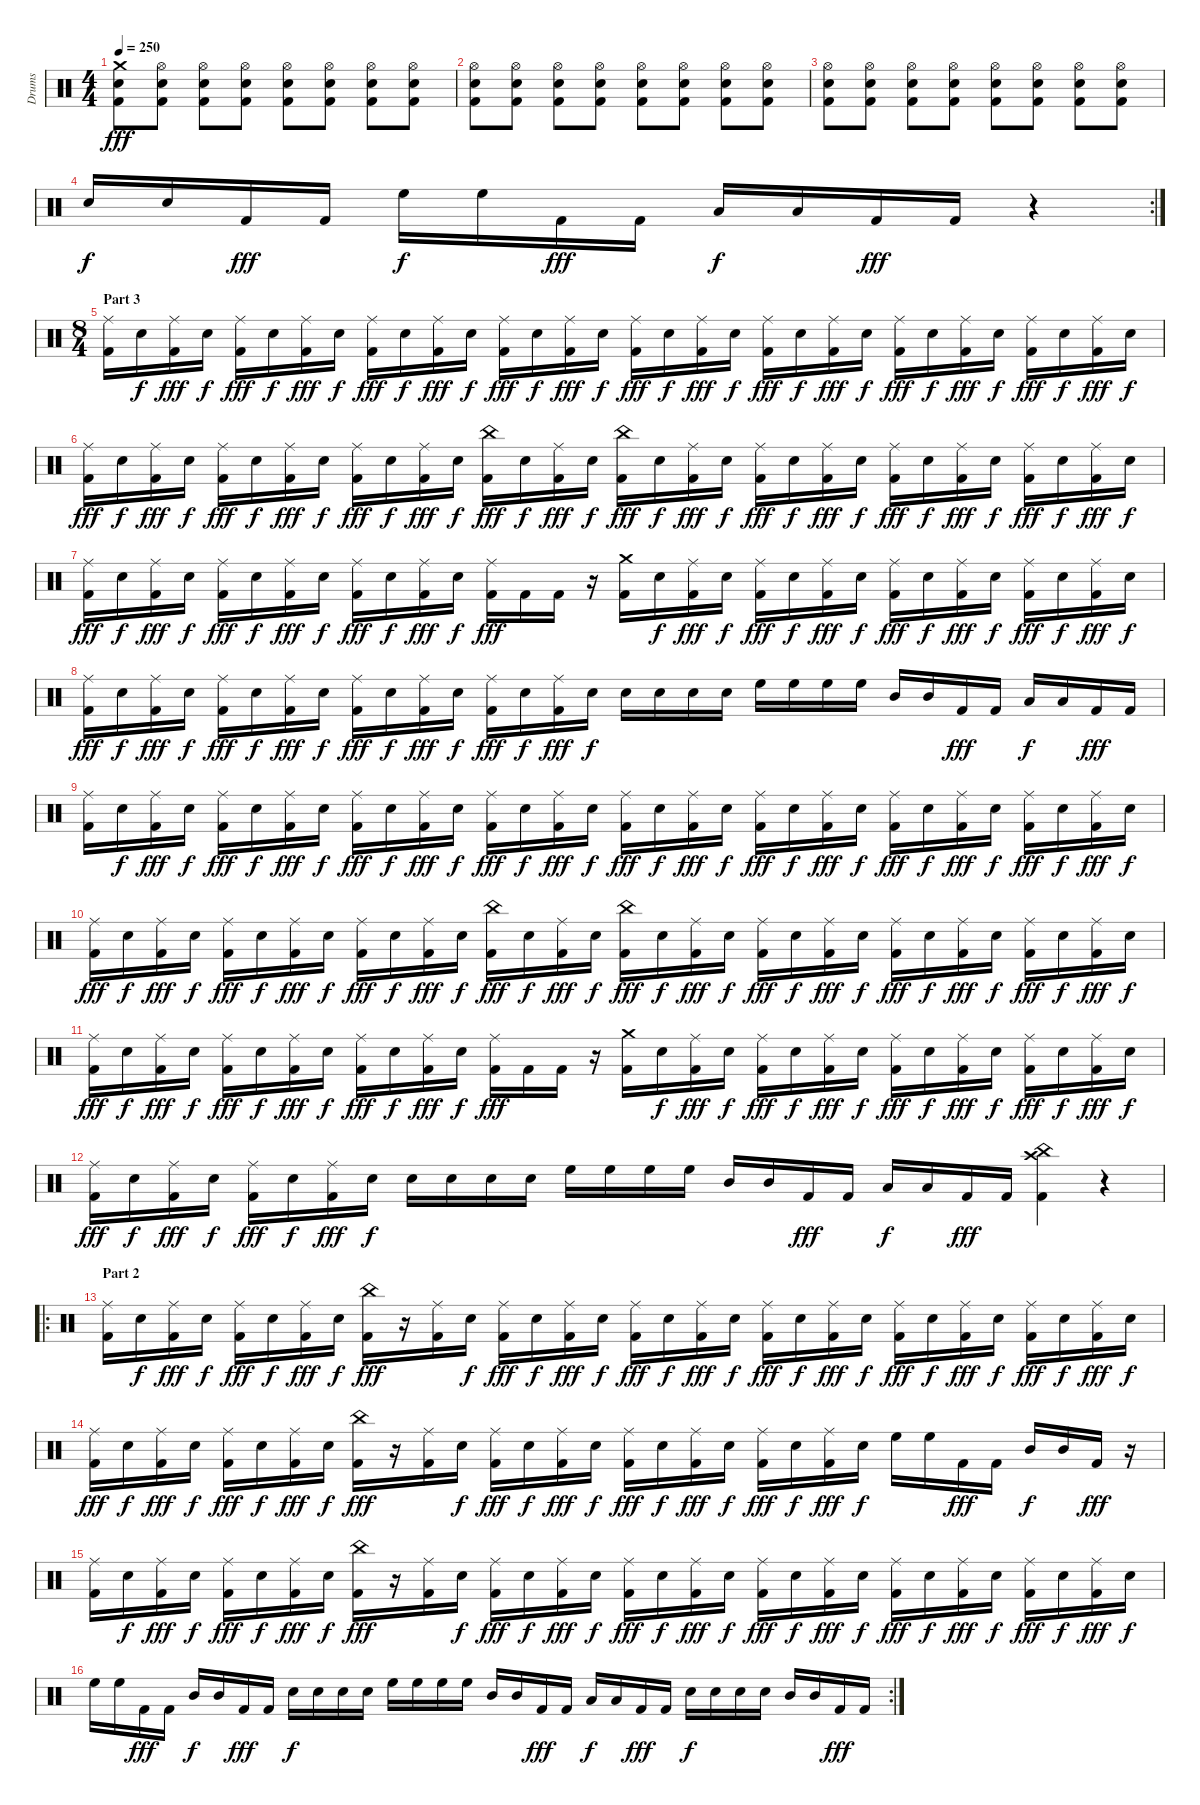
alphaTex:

\track ("Drums" "Drums") {instrument percussion}
\staff {score}
\articulation defaults
\ts (4 4)
\tempo 250
\clef neutral
\ks c
("Crash medium (hit)" "Electric Snare (hit)" "Kick (hit) 2").8{dy fff} ("Hi-Hat (open)" "Electric Snare (hit)" "Kick (hit) 2").8 ("Hi-Hat (open)" "Electric Snare (hit)" "Kick (hit) 2").8 ("Hi-Hat (open)" "Electric Snare (hit)" "Kick (hit) 2").8 ("Hi-Hat (open)" "Electric Snare (hit)" "Kick (hit) 2").8 ("Hi-Hat (open)" "Electric Snare (hit)" "Kick (hit) 2").8 ("Hi-Hat (open)" "Electric Snare (hit)" "Kick (hit) 2").8 ("Hi-Hat (open)" "Electric Snare (hit)" "Kick (hit) 2").8 |
("Hi-Hat (open)" "Electric Snare (hit)" "Kick (hit) 2").8 ("Hi-Hat (open)" "Electric Snare (hit)" "Kick (hit) 2").8 ("Hi-Hat (open)" "Electric Snare (hit)" "Kick (hit) 2").8 ("Hi-Hat (open)" "Electric Snare (hit)" "Kick (hit) 2").8 ("Hi-Hat (open)" "Electric Snare (hit)" "Kick (hit) 2").8 ("Hi-Hat (open)" "Electric Snare (hit)" "Kick (hit) 2").8 ("Hi-Hat (open)" "Electric Snare (hit)" "Kick (hit) 2").8 ("Hi-Hat (open)" "Electric Snare (hit)" "Kick (hit) 2").8 |
("Hi-Hat (open)" "Electric Snare (hit)" "Kick (hit) 2").8 ("Hi-Hat (open)" "Electric Snare (hit)" "Kick (hit) 2").8 ("Hi-Hat (open)" "Electric Snare (hit)" "Kick (hit) 2").8 ("Hi-Hat (open)" "Electric Snare (hit)" "Kick (hit) 2").8 ("Hi-Hat (open)" "Electric Snare (hit)" "Kick (hit) 2").8 ("Hi-Hat (open)" "Electric Snare (hit)" "Kick (hit) 2").8 ("Hi-Hat (open)" "Electric Snare (hit)" "Kick (hit) 2").8 ("Hi-Hat (open)" "Electric Snare (hit)" "Kick (hit) 2").8 |
\rc 2 "Electric Snare (hit)".16{dy f} "Electric Snare (hit)".16 "Kick (hit) 2".16{dy fff} "Kick (hit) 2".16 "High Floor Tom (hit)".16{dy f} "High Floor Tom (hit)".16 "Kick (hit) 2".16{dy fff} "Kick (hit) 2".16 "Low Tom (hit)".16{dy f} "Low Tom (hit)".16 "Kick (hit) 2".16{dy fff} "Kick (hit) 2".16
r.4 |
\ts (8 4)
\section ("" "Part 3")
("Ride (middle)" "Kick (hit) 2").16 "Electric Snare (hit)".16{dy f} ("Ride (middle)" "Kick (hit) 2").16{dy fff} "Electric Snare (hit)".16{dy f} ("Ride (middle)" "Kick (hit) 2").16{dy fff} "Electric Snare (hit)".16{dy f} ("Ride (middle)" "Kick (hit) 2").16{dy fff} "Electric Snare (hit)".16{dy f} ("Ride (middle)" "Kick (hit) 2").16{dy fff} "Electric Snare (hit)".16{dy f} ("Ride (middle)" "Kick (hit) 2").16{dy fff} "Electric Snare (hit)".16{dy f} ("Ride (middle)" "Kick (hit) 2").16{dy fff} "Electric Snare (hit)".16{dy f} ("Ride (middle)" "Kick (hit) 2").16{dy fff} "Electric Snare (hit)".16{dy f} ("Ride (middle)" "Kick (hit) 2").16{dy fff} "Electric Snare (hit)".16{dy f} ("Ride (middle)" "Kick (hit) 2").16{dy fff} "Electric Snare (hit)".16{dy f} ("Ride (middle)" "Kick (hit) 2").16{dy fff} "Electric Snare (hit)".16{dy f} ("Ride (middle)" "Kick (hit) 2").16{dy fff} "Electric Snare (hit)".16{dy f} ("Ride (middle)" "Kick (hit) 2").16{dy fff} "Electric Snare (hit)".16{dy f} ("Ride (middle)" "Kick (hit) 2").16{dy fff} "Electric Snare (hit)".16{dy f} ("Ride (middle)" "Kick (hit) 2").16{dy fff} "Electric Snare (hit)".16{dy f} ("Ride (middle)" "Kick (hit) 2").16{dy fff} "Electric Snare (hit)".16{dy f} |
("Ride (middle)" "Kick (hit) 2").16{dy fff} "Electric Snare (hit)".16{dy f} ("Ride (middle)" "Kick (hit) 2").16{dy fff} "Electric Snare (hit)".16{dy f} ("Ride (middle)" "Kick (hit) 2").16{dy fff} "Electric Snare (hit)".16{dy f} ("Ride (middle)" "Kick (hit) 2").16{dy fff} "Electric Snare (hit)".16{dy f} ("Ride (middle)" "Kick (hit) 2").16{dy fff} "Electric Snare (hit)".16{dy f} ("Ride (middle)" "Kick (hit) 2").16{dy fff} "Electric Snare (hit)".16{dy f} ("China (hit)" "Kick (hit) 2").16{dy fff} "Electric Snare (hit)".16{dy f} ("Ride (middle)" "Kick (hit) 2").16{dy fff} "Electric Snare (hit)".16{dy f} ("China (hit)" "Kick (hit) 2").16{dy fff} "Electric Snare (hit)".16{dy f} ("Ride (middle)" "Kick (hit) 2").16{dy fff} "Electric Snare (hit)".16{dy f} ("Ride (middle)" "Kick (hit) 2").16{dy fff} "Electric Snare (hit)".16{dy f} ("Ride (middle)" "Kick (hit) 2").16{dy fff} "Electric Snare (hit)".16{dy f} ("Ride (middle)" "Kick (hit) 2").16{dy fff} "Electric Snare (hit)".16{dy f} ("Ride (middle)" "Kick (hit) 2").16{dy fff} "Electric Snare (hit)".16{dy f} ("Ride (middle)" "Kick (hit) 2").16{dy fff} "Electric Snare (hit)".16{dy f} ("Ride (middle)" "Kick (hit) 2").16{dy fff} "Electric Snare (hit)".16{dy f} |
("Ride (middle)" "Kick (hit) 2").16{dy fff} "Electric Snare (hit)".16{dy f} ("Ride (middle)" "Kick (hit) 2").16{dy fff} "Electric Snare (hit)".16{dy f} ("Ride (middle)" "Kick (hit) 2").16{dy fff} "Electric Snare (hit)".16{dy f} ("Ride (middle)" "Kick (hit) 2").16{dy fff} "Electric Snare (hit)".16{dy f} ("Ride (middle)" "Kick (hit) 2").16{dy fff} "Electric Snare (hit)".16{dy f} ("Ride (middle)" "Kick (hit) 2").16{dy fff} "Electric Snare (hit)".16{dy f} ("Ride (middle)" "Kick (hit) 2").16{dy fff} "Kick (hit) 2".16 "Kick (hit) 2".16 r.16 ("Crash medium (hit)" "Kick (hit) 2").16 "Electric Snare (hit)".16{dy f} ("Ride (middle)" "Kick (hit) 2").16{dy fff} "Electric Snare (hit)".16{dy f} ("Ride (middle)" "Kick (hit) 2").16{dy fff} "Electric Snare (hit)".16{dy f} ("Ride (middle)" "Kick (hit) 2").16{dy fff} "Electric Snare (hit)".16{dy f} ("Ride (middle)" "Kick (hit) 2").16{dy fff} "Electric Snare (hit)".16{dy f} ("Ride (middle)" "Kick (hit) 2").16{dy fff} "Electric Snare (hit)".16{dy f} ("Ride (middle)" "Kick (hit) 2").16{dy fff} "Electric Snare (hit)".16{dy f} ("Ride (middle)" "Kick (hit) 2").16{dy fff} "Electric Snare (hit)".16{dy f} |
("Ride (middle)" "Kick (hit) 2").16{dy fff} "Electric Snare (hit)".16{dy f} ("Ride (middle)" "Kick (hit) 2").16{dy fff} "Electric Snare (hit)".16{dy f} ("Ride (middle)" "Kick (hit) 2").16{dy fff} "Electric Snare (hit)".16{dy f} ("Ride (middle)" "Kick (hit) 2").16{dy fff} "Electric Snare (hit)".16{dy f} ("Ride (middle)" "Kick (hit) 2").16{dy fff} "Electric Snare (hit)".16{dy f} ("Ride (middle)" "Kick (hit) 2").16{dy fff} "Electric Snare (hit)".16{dy f} ("Ride (middle)" "Kick (hit) 2").16{dy fff} "Electric Snare (hit)".16{dy f} ("Ride (middle)" "Kick (hit) 2").16{dy fff} "Electric Snare (hit)".16{dy f} "Electric Snare (hit)".16 "Electric Snare (hit)".16 "Electric Snare (hit)".16 "Electric Snare (hit)".16 "High Floor Tom (hit)".16 "High Floor Tom (hit)".16 "High Floor Tom (hit)".16 "High Floor Tom (hit)".16 "Mid Tom (hit)".16 "Mid Tom (hit)".16 "Kick (hit) 2".16{dy fff} "Kick (hit) 2".16 "Low Tom (hit)".16{dy f} "Low Tom (hit)".16 "Kick (hit) 2".16{dy fff} "Kick (hit) 2".16 |
("Ride (middle)" "Kick (hit) 2").16 "Electric Snare (hit)".16{dy f} ("Ride (middle)" "Kick (hit) 2").16{dy fff} "Electric Snare (hit)".16{dy f} ("Ride (middle)" "Kick (hit) 2").16{dy fff} "Electric Snare (hit)".16{dy f} ("Ride (middle)" "Kick (hit) 2").16{dy fff} "Electric Snare (hit)".16{dy f} ("Ride (middle)" "Kick (hit) 2").16{dy fff} "Electric Snare (hit)".16{dy f} ("Ride (middle)" "Kick (hit) 2").16{dy fff} "Electric Snare (hit)".16{dy f} ("Ride (middle)" "Kick (hit) 2").16{dy fff} "Electric Snare (hit)".16{dy f} ("Ride (middle)" "Kick (hit) 2").16{dy fff} "Electric Snare (hit)".16{dy f} ("Ride (middle)" "Kick (hit) 2").16{dy fff} "Electric Snare (hit)".16{dy f} ("Ride (middle)" "Kick (hit) 2").16{dy fff} "Electric Snare (hit)".16{dy f} ("Ride (middle)" "Kick (hit) 2").16{dy fff} "Electric Snare (hit)".16{dy f} ("Ride (middle)" "Kick (hit) 2").16{dy fff} "Electric Snare (hit)".16{dy f} ("Ride (middle)" "Kick (hit) 2").16{dy fff} "Electric Snare (hit)".16{dy f} ("Ride (middle)" "Kick (hit) 2").16{dy fff} "Electric Snare (hit)".16{dy f} ("Ride (middle)" "Kick (hit) 2").16{dy fff} "Electric Snare (hit)".16{dy f} ("Ride (middle)" "Kick (hit) 2").16{dy fff} "Electric Snare (hit)".16{dy f} |
("Ride (middle)" "Kick (hit) 2").16{dy fff} "Electric Snare (hit)".16{dy f} ("Ride (middle)" "Kick (hit) 2").16{dy fff} "Electric Snare (hit)".16{dy f} ("Ride (middle)" "Kick (hit) 2").16{dy fff} "Electric Snare (hit)".16{dy f} ("Ride (middle)" "Kick (hit) 2").16{dy fff} "Electric Snare (hit)".16{dy f} ("Ride (middle)" "Kick (hit) 2").16{dy fff} "Electric Snare (hit)".16{dy f} ("Ride (middle)" "Kick (hit) 2").16{dy fff} "Electric Snare (hit)".16{dy f} ("China (hit)" "Kick (hit) 2").16{dy fff} "Electric Snare (hit)".16{dy f} ("Ride (middle)" "Kick (hit) 2").16{dy fff} "Electric Snare (hit)".16{dy f} ("China (hit)" "Kick (hit) 2").16{dy fff} "Electric Snare (hit)".16{dy f} ("Ride (middle)" "Kick (hit) 2").16{dy fff} "Electric Snare (hit)".16{dy f} ("Ride (middle)" "Kick (hit) 2").16{dy fff} "Electric Snare (hit)".16{dy f} ("Ride (middle)" "Kick (hit) 2").16{dy fff} "Electric Snare (hit)".16{dy f} ("Ride (middle)" "Kick (hit) 2").16{dy fff} "Electric Snare (hit)".16{dy f} ("Ride (middle)" "Kick (hit) 2").16{dy fff} "Electric Snare (hit)".16{dy f} ("Ride (middle)" "Kick (hit) 2").16{dy fff} "Electric Snare (hit)".16{dy f} ("Ride (middle)" "Kick (hit) 2").16{dy fff} "Electric Snare (hit)".16{dy f} |
("Ride (middle)" "Kick (hit) 2").16{dy fff} "Electric Snare (hit)".16{dy f} ("Ride (middle)" "Kick (hit) 2").16{dy fff} "Electric Snare (hit)".16{dy f} ("Ride (middle)" "Kick (hit) 2").16{dy fff} "Electric Snare (hit)".16{dy f} ("Ride (middle)" "Kick (hit) 2").16{dy fff} "Electric Snare (hit)".16{dy f} ("Ride (middle)" "Kick (hit) 2").16{dy fff} "Electric Snare (hit)".16{dy f} ("Ride (middle)" "Kick (hit) 2").16{dy fff} "Electric Snare (hit)".16{dy f} ("Ride (middle)" "Kick (hit) 2").16{dy fff} "Kick (hit) 2".16 "Kick (hit) 2".16 r.16 ("Crash medium (hit)" "Kick (hit) 2").16 "Electric Snare (hit)".16{dy f} ("Ride (middle)" "Kick (hit) 2").16{dy fff} "Electric Snare (hit)".16{dy f} ("Ride (middle)" "Kick (hit) 2").16{dy fff} "Electric Snare (hit)".16{dy f} ("Ride (middle)" "Kick (hit) 2").16{dy fff} "Electric Snare (hit)".16{dy f} ("Ride (middle)" "Kick (hit) 2").16{dy fff} "Electric Snare (hit)".16{dy f} ("Ride (middle)" "Kick (hit) 2").16{dy fff} "Electric Snare (hit)".16{dy f} ("Ride (middle)" "Kick (hit) 2").16{dy fff} "Electric Snare (hit)".16{dy f} ("Ride (middle)" "Kick (hit) 2").16{dy fff} "Electric Snare (hit)".16{dy f} |
("Ride (middle)" "Kick (hit) 2").16{dy fff} "Electric Snare (hit)".16{dy f} ("Ride (middle)" "Kick (hit) 2").16{dy fff} "Electric Snare (hit)".16{dy f} ("Ride (middle)" "Kick (hit) 2").16{dy fff} "Electric Snare (hit)".16{dy f} ("Ride (middle)" "Kick (hit) 2").16{dy fff} "Electric Snare (hit)".16{dy f} "Electric Snare (hit)".16 "Electric Snare (hit)".16 "Electric Snare (hit)".16 "Electric Snare (hit)".16 "High Floor Tom (hit)".16 "High Floor Tom (hit)".16 "High Floor Tom (hit)".16 "High Floor Tom (hit)".16 "Mid Tom (hit)".16 "Mid Tom (hit)".16 "Kick (hit) 2".16{dy fff} "Kick (hit) 2".16 "Low Tom (hit)".16{dy f} "Low Tom (hit)".16 "Kick (hit) 2".16{dy fff} "Kick (hit) 2".16 ("Crash high (hit)" "China (hit)" "Kick (hit) 2").4 r.4 |
\ro
\section ("" "Part 2")
("Ride (middle)" "Kick (hit) 2").16 "Electric Snare (hit)".16{dy f} ("Ride (middle)" "Kick (hit) 2").16{dy fff} "Electric Snare (hit)".16{dy f} ("Ride (middle)" "Kick (hit) 2").16{dy fff} "Electric Snare (hit)".16{dy f} ("Ride (middle)" "Kick (hit) 2").16{dy fff} "Electric Snare (hit)".16{dy f} ("China (hit)" "Kick (hit) 2").16{dy fff} r.16 ("Ride (middle)" "Kick (hit) 2").16 "Electric Snare (hit)".16{dy f} ("Ride (middle)" "Kick (hit) 2").16{dy fff} "Electric Snare (hit)".16{dy f} ("Ride (middle)" "Kick (hit) 2").16{dy fff} "Electric Snare (hit)".16{dy f} ("Ride (middle)" "Kick (hit) 2").16{dy fff} "Electric Snare (hit)".16{dy f} ("Ride (middle)" "Kick (hit) 2").16{dy fff} "Electric Snare (hit)".16{dy f} ("Ride (middle)" "Kick (hit) 2").16{dy fff} "Electric Snare (hit)".16{dy f} ("Ride (middle)" "Kick (hit) 2").16{dy fff} "Electric Snare (hit)".16{dy f} ("Ride (middle)" "Kick (hit) 2").16{dy fff} "Electric Snare (hit)".16{dy f} ("Ride (middle)" "Kick (hit) 2").16{dy fff} "Electric Snare (hit)".16{dy f} ("Ride (middle)" "Kick (hit) 2").16{dy fff} "Electric Snare (hit)".16{dy f} ("Ride (middle)" "Kick (hit) 2").16{dy fff} "Electric Snare (hit)".16{dy f} |
("Ride (middle)" "Kick (hit) 2").16{dy fff} "Electric Snare (hit)".16{dy f} ("Ride (middle)" "Kick (hit) 2").16{dy fff} "Electric Snare (hit)".16{dy f} ("Ride (middle)" "Kick (hit) 2").16{dy fff} "Electric Snare (hit)".16{dy f} ("Ride (middle)" "Kick (hit) 2").16{dy fff} "Electric Snare (hit)".16{dy f} ("China (hit)" "Kick (hit) 2").16{dy fff} r.16 ("Ride (middle)" "Kick (hit) 2").16 "Electric Snare (hit)".16{dy f} ("Ride (middle)" "Kick (hit) 2").16{dy fff} "Electric Snare (hit)".16{dy f} ("Ride (middle)" "Kick (hit) 2").16{dy fff} "Electric Snare (hit)".16{dy f} ("Ride (middle)" "Kick (hit) 2").16{dy fff} "Electric Snare (hit)".16{dy f} ("Ride (middle)" "Kick (hit) 2").16{dy fff} "Electric Snare (hit)".16{dy f} ("Ride (middle)" "Kick (hit) 2").16{dy fff} "Electric Snare (hit)".16{dy f} ("Ride (middle)" "Kick (hit) 2").16{dy fff} "Electric Snare (hit)".16{dy f} "High Floor Tom (hit)".16 "High Floor Tom (hit)".16 "Kick (hit) 2".16{dy fff} "Kick (hit) 2".16 "Mid Tom (hit)".16{dy f} "Mid Tom (hit)".16 "Kick (hit) 2".16{dy fff} r.16 |
("Ride (middle)" "Kick (hit) 2").16 "Electric Snare (hit)".16{dy f} ("Ride (middle)" "Kick (hit) 2").16{dy fff} "Electric Snare (hit)".16{dy f} ("Ride (middle)" "Kick (hit) 2").16{dy fff} "Electric Snare (hit)".16{dy f} ("Ride (middle)" "Kick (hit) 2").16{dy fff} "Electric Snare (hit)".16{dy f} ("China (hit)" "Kick (hit) 2").16{dy fff} r.16 ("Ride (middle)" "Kick (hit) 2").16 "Electric Snare (hit)".16{dy f} ("Ride (middle)" "Kick (hit) 2").16{dy fff} "Electric Snare (hit)".16{dy f} ("Ride (middle)" "Kick (hit) 2").16{dy fff} "Electric Snare (hit)".16{dy f} ("Ride (middle)" "Kick (hit) 2").16{dy fff} "Electric Snare (hit)".16{dy f} ("Ride (middle)" "Kick (hit) 2").16{dy fff} "Electric Snare (hit)".16{dy f} ("Ride (middle)" "Kick (hit) 2").16{dy fff} "Electric Snare (hit)".16{dy f} ("Ride (middle)" "Kick (hit) 2").16{dy fff} "Electric Snare (hit)".16{dy f} ("Ride (middle)" "Kick (hit) 2").16{dy fff} "Electric Snare (hit)".16{dy f} ("Ride (middle)" "Kick (hit) 2").16{dy fff} "Electric Snare (hit)".16{dy f} ("Ride (middle)" "Kick (hit) 2").16{dy fff} "Electric Snare (hit)".16{dy f} ("Ride (middle)" "Kick (hit) 2").16{dy fff} "Electric Snare (hit)".16{dy f} |
\rc 2 "High Floor Tom (hit)".16 "High Floor Tom (hit)".16 "Kick (hit) 2".16{dy fff} "Kick (hit) 2".16 "Mid Tom (hit)".16{dy f} "Mid Tom (hit)".16 "Kick (hit) 2".16{dy fff} "Kick (hit) 2".16 "Electric Snare (hit)".16{dy f} "Electric Snare (hit)".16 "Electric Snare (hit)".16 "Electric Snare (hit)".16 "High Floor Tom (hit)".16 "High Floor Tom (hit)".16 "High Floor Tom (hit)".16 "High Floor Tom (hit)".16 "Mid Tom (hit)".16 "Mid Tom (hit)".16 "Kick (hit) 2".16{dy fff} "Kick (hit) 2".16 "Low Tom (hit)".16{dy f} "Low Tom (hit)".16 "Kick (hit) 2".16{dy fff} "Kick (hit) 2".16 "Electric Snare (hit)".16{dy f} "Electric Snare (hit)".16 "Electric Snare (hit)".16 "Electric Snare (hit)".16 "Mid Tom (hit)".16 "Mid Tom (hit)".16 "Kick (hit) 2".16{dy fff} "Kick (hit) 2".16
